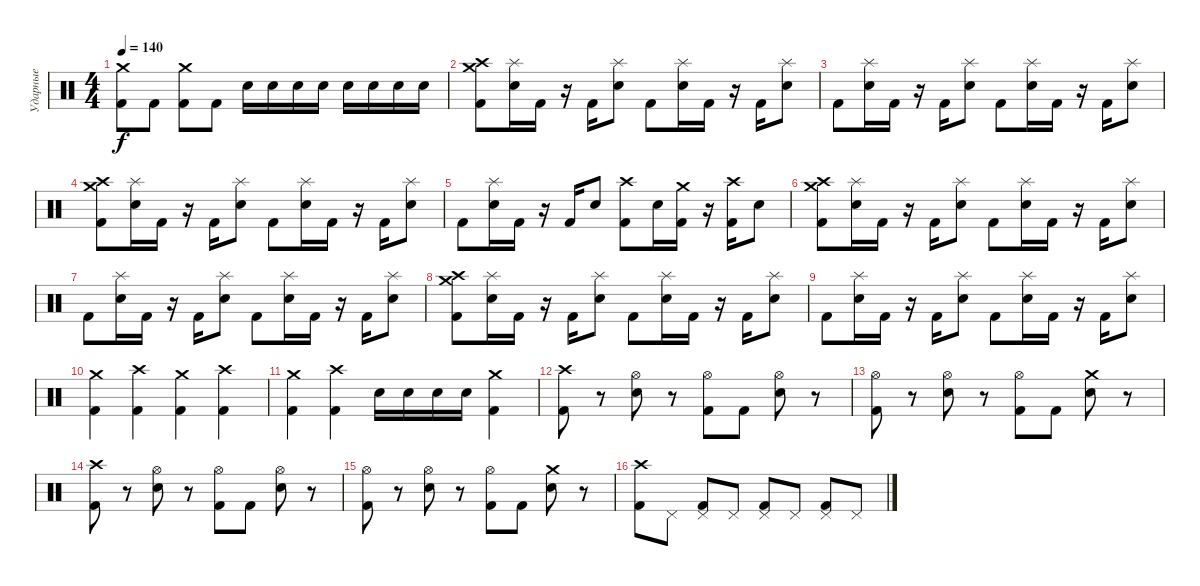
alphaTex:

\track ("Ударные" "Ударные") {instrument percussion}
\staff {score}
\articulation defaults
\ts (4 4)
\tempo 140
\clef neutral
\ks c
("Crash medium (hit)" "Kick (hit) 2").8{dy f} "Kick (hit) 2".8 ("Crash medium (hit)" "Kick (hit) 2").8 "Kick (hit) 2".8 "Electric Snare (hit)".16 "Electric Snare (hit)".16 "Electric Snare (hit)".16 "Electric Snare (hit)".16 "Electric Snare (hit)".16 "Electric Snare (hit)".16 "Electric Snare (hit)".16 "Electric Snare (hit)".16 |
("Crash medium (hit)" "Crash high (hit)" "Kick (hit) 2").8 ("Splash (hit)" "Electric Snare (hit)").16 "Kick (hit) 2".16 r.16 "Kick (hit) 2".16 ("Splash (hit)" "Electric Snare (hit)").8 "Kick (hit) 2".8 ("Splash (hit)" "Electric Snare (hit)").16 "Kick (hit) 2".16 r.16 "Kick (hit) 2".16 ("Splash (hit)" "Electric Snare (hit)").8 |
"Kick (hit) 2".8 ("Splash (hit)" "Electric Snare (hit)").16 "Kick (hit) 2".16 r.16 "Kick (hit) 2".16 ("Splash (hit)" "Electric Snare (hit)").8 "Kick (hit) 2".8 ("Splash (hit)" "Electric Snare (hit)").16 "Kick (hit) 2".16 r.16 "Kick (hit) 2".16 ("Splash (hit)" "Electric Snare (hit)").8 |
("Crash medium (hit)" "Crash high (hit)" "Kick (hit) 2").8 ("Splash (hit)" "Electric Snare (hit)").16 "Kick (hit) 2".16 r.16 "Kick (hit) 2".16 ("Splash (hit)" "Electric Snare (hit)").8 "Kick (hit) 2".8 ("Splash (hit)" "Electric Snare (hit)").16 "Kick (hit) 2".16 r.16 "Kick (hit) 2".16 ("Splash (hit)" "Electric Snare (hit)").8 |
"Kick (hit) 2".8 ("Splash (hit)" "Electric Snare (hit)").16 "Kick (hit) 2".16 r.16 "Kick (hit) 2".16 "Electric Snare (hit)".8 ("Crash high (hit)" "Kick (hit) 2").8 "Electric Snare (hit)".16 ("Crash medium (hit)" "Kick (hit) 2").16 r.16 ("Crash high (hit)" "Kick (hit) 2").16 "Electric Snare (hit)".8 |
("Crash medium (hit)" "Crash high (hit)" "Kick (hit) 2").8 ("Splash (hit)" "Electric Snare (hit)").16 "Kick (hit) 2".16 r.16 "Kick (hit) 2".16 ("Splash (hit)" "Electric Snare (hit)").8 "Kick (hit) 2".8 ("Splash (hit)" "Electric Snare (hit)").16 "Kick (hit) 2".16 r.16 "Kick (hit) 2".16 ("Splash (hit)" "Electric Snare (hit)").8 |
"Kick (hit) 2".8 ("Splash (hit)" "Electric Snare (hit)").16 "Kick (hit) 2".16 r.16 "Kick (hit) 2".16 ("Splash (hit)" "Electric Snare (hit)").8 "Kick (hit) 2".8 ("Splash (hit)" "Electric Snare (hit)").16 "Kick (hit) 2".16 r.16 "Kick (hit) 2".16 ("Splash (hit)" "Electric Snare (hit)").8 |
("Crash medium (hit)" "Crash high (hit)" "Kick (hit) 2").8 ("Splash (hit)" "Electric Snare (hit)").16 "Kick (hit) 2".16 r.16 "Kick (hit) 2".16 ("Splash (hit)" "Electric Snare (hit)").8 "Kick (hit) 2".8 ("Splash (hit)" "Electric Snare (hit)").16 "Kick (hit) 2".16 r.16 "Kick (hit) 2".16 ("Splash (hit)" "Electric Snare (hit)").8 |
"Kick (hit) 2".8 ("Splash (hit)" "Electric Snare (hit)").16 "Kick (hit) 2".16 r.16 "Kick (hit) 2".16 ("Splash (hit)" "Electric Snare (hit)").8 "Kick (hit) 2".8 ("Splash (hit)" "Electric Snare (hit)").16 "Kick (hit) 2".16 r.16 "Kick (hit) 2".16 ("Splash (hit)" "Electric Snare (hit)").8 |
("Crash medium (hit)" "Kick (hit) 2").4 ("Crash high (hit)" "Kick (hit) 2").4 ("Crash medium (hit)" "Kick (hit) 2").4 ("Crash high (hit)" "Kick (hit) 2").4 |
("Crash medium (hit)" "Kick (hit) 2").4 ("Crash high (hit)" "Kick (hit) 2").4 "Electric Snare (hit)".16 "Electric Snare (hit)".16 "Electric Snare (hit)".16 "Electric Snare (hit)".16 ("Crash medium (hit)" "Kick (hit) 2").4 |
("Crash high (hit)" "Kick (hit) 2").8 r.8 ("Hi-Hat (open)" "Electric Snare (hit)").8 r.8 ("Hi-Hat (open)" "Kick (hit) 2").8 "Kick (hit) 2".8 ("Hi-Hat (open)" "Electric Snare (hit)").8 r.8 |
("Hi-Hat (open)" "Kick (hit) 2").8 r.8 ("Hi-Hat (open)" "Electric Snare (hit)").8 r.8 ("Hi-Hat (open)" "Kick (hit) 2").8 "Kick (hit) 2".8 ("Crash medium (hit)" "Electric Snare (hit)").8 r.8 |
("Crash high (hit)" "Kick (hit) 2").8 r.8 ("Hi-Hat (open)" "Electric Snare (hit)").8 r.8 ("Hi-Hat (open)" "Kick (hit) 2").8 "Kick (hit) 2".8 ("Hi-Hat (open)" "Electric Snare (hit)").8 r.8 |
("Hi-Hat (open)" "Kick (hit) 2").8 r.8 ("Hi-Hat (open)" "Electric Snare (hit)").8 r.8 ("Hi-Hat (open)" "Kick (hit) 2").8 "Kick (hit) 2".8 ("Crash medium (hit)" "Electric Snare (hit)").8 r.8 |
("Crash high (hit)" "Kick (hit) 2").8 "Pedal Hi-Hat (hit)".8 ("Pedal Hi-Hat (hit)" "Kick (hit) 2").8 "Pedal Hi-Hat (hit)".8 ("Pedal Hi-Hat (hit)" "Kick (hit) 2").8 "Pedal Hi-Hat (hit)".8 ("Pedal Hi-Hat (hit)" "Kick (hit) 2").8 "Pedal Hi-Hat (hit)".8
